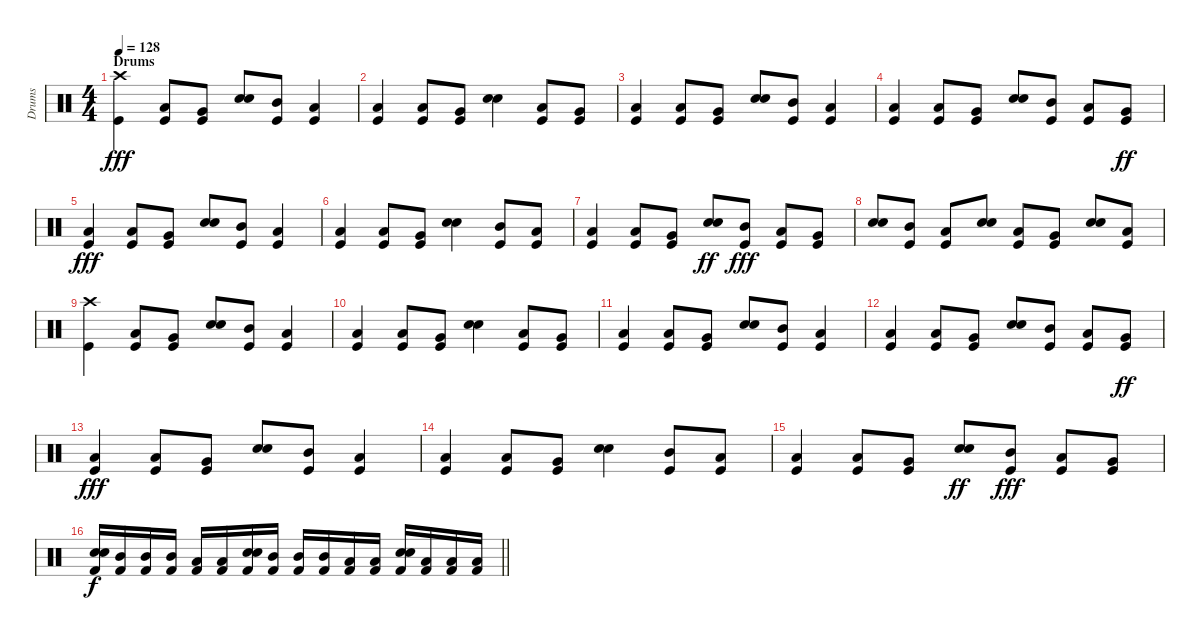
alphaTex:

\track ("Drums" "Drums") {instrument percussion}
\staff {score}
\articulation defaults
\ts (4 4)
\section ("" "Drums")
\tempo 128
\clef neutral
\ks c
("Crash high (hit)" "Kick (hit)").4{dy fff} ("Low Tom (hit)" "Kick (hit)").8 ("Very Low Tom (hit)" "Kick (hit)").8 ("Snare (hit) 2" "Electric Snare (hit)").8 ("Mid Tom (hit)" "Kick (hit)").8 ("Low Tom (hit)" "Kick (hit)").4 |
("Low Tom (hit)" "Kick (hit)").4 ("Low Tom (hit)" "Kick (hit)").8 ("Very Low Tom (hit)" "Kick (hit)").8 ("Snare (hit) 2" "Electric Snare (hit)").4 ("Low Tom (hit)" "Kick (hit)").8 ("Very Low Tom (hit)" "Kick (hit)").8 |
("Low Tom (hit)" "Kick (hit)").4 ("Low Tom (hit)" "Kick (hit)").8 ("Very Low Tom (hit)" "Kick (hit)").8 ("Snare (hit) 2" "Electric Snare (hit)").8 ("Mid Tom (hit)" "Kick (hit)").8 ("Low Tom (hit)" "Kick (hit)").4 |
("Low Tom (hit)" "Kick (hit)").4 ("Low Tom (hit)" "Kick (hit)").8 ("Very Low Tom (hit)" "Kick (hit)").8 ("Snare (hit) 2" "Electric Snare (hit)").8 ("Mid Tom (hit)" "Kick (hit)").8 ("Low Tom (hit)" "Kick (hit)").8 ("Very Low Tom (hit)" "Kick (hit)").8{dy ff} |
("Low Tom (hit)" "Kick (hit)").4{dy fff} ("Low Tom (hit)" "Kick (hit)").8 ("Very Low Tom (hit)" "Kick (hit)").8 ("Snare (hit) 2" "Electric Snare (hit)").8 ("Mid Tom (hit)" "Kick (hit)").8 ("Low Tom (hit)" "Kick (hit)").4 |
("Low Tom (hit)" "Kick (hit)").4 ("Low Tom (hit)" "Kick (hit)").8 ("Very Low Tom (hit)" "Kick (hit)").8 ("Snare (hit) 2" "Electric Snare (hit)").4 ("Mid Tom (hit)" "Kick (hit)").8 ("Low Tom (hit)" "Kick (hit)").8 |
("Low Tom (hit)" "Kick (hit)").4 ("Low Tom (hit)" "Kick (hit)").8 ("Very Low Tom (hit)" "Kick (hit)").8 ("Snare (hit) 2" "Electric Snare (hit)").8{dy ff} ("Mid Tom (hit)" "Kick (hit)").8{dy fff} ("Low Tom (hit)" "Kick (hit)").8 ("Very Low Tom (hit)" "Kick (hit)").8 |
("Snare (hit) 2" "Electric Snare (hit)").8 ("Mid Tom (hit)" "Kick (hit)").8 ("Low Tom (hit)" "Kick (hit)").8 ("Snare (hit) 2" "Electric Snare (hit)").8 ("Low Tom (hit)" "Kick (hit)").8 ("Very Low Tom (hit)" "Kick (hit)").8 ("Snare (hit) 2" "Electric Snare (hit)").8 ("Low Tom (hit)" "Kick (hit)").8 |
("Crash high (hit)" "Kick (hit)").4 ("Low Tom (hit)" "Kick (hit)").8 ("Very Low Tom (hit)" "Kick (hit)").8 ("Snare (hit) 2" "Electric Snare (hit)").8 ("Mid Tom (hit)" "Kick (hit)").8 ("Low Tom (hit)" "Kick (hit)").4 |
("Low Tom (hit)" "Kick (hit)").4 ("Low Tom (hit)" "Kick (hit)").8 ("Very Low Tom (hit)" "Kick (hit)").8 ("Snare (hit) 2" "Electric Snare (hit)").4 ("Low Tom (hit)" "Kick (hit)").8 ("Very Low Tom (hit)" "Kick (hit)").8 |
("Low Tom (hit)" "Kick (hit)").4 ("Low Tom (hit)" "Kick (hit)").8 ("Very Low Tom (hit)" "Kick (hit)").8 ("Snare (hit) 2" "Electric Snare (hit)").8 ("Mid Tom (hit)" "Kick (hit)").8 ("Low Tom (hit)" "Kick (hit)").4 |
("Low Tom (hit)" "Kick (hit)").4 ("Low Tom (hit)" "Kick (hit)").8 ("Very Low Tom (hit)" "Kick (hit)").8 ("Snare (hit) 2" "Electric Snare (hit)").8 ("Mid Tom (hit)" "Kick (hit)").8 ("Low Tom (hit)" "Kick (hit)").8 ("Very Low Tom (hit)" "Kick (hit)").8{dy ff} |
("Low Tom (hit)" "Kick (hit)").4{dy fff} ("Low Tom (hit)" "Kick (hit)").8 ("Very Low Tom (hit)" "Kick (hit)").8 ("Snare (hit) 2" "Electric Snare (hit)").8 ("Mid Tom (hit)" "Kick (hit)").8 ("Low Tom (hit)" "Kick (hit)").4 |
("Low Tom (hit)" "Kick (hit)").4 ("Low Tom (hit)" "Kick (hit)").8 ("Very Low Tom (hit)" "Kick (hit)").8 ("Snare (hit) 2" "Electric Snare (hit)").4 ("Mid Tom (hit)" "Kick (hit)").8 ("Low Tom (hit)" "Kick (hit)").8 |
("Low Tom (hit)" "Kick (hit)").4 ("Low Tom (hit)" "Kick (hit)").8 ("Very Low Tom (hit)" "Kick (hit)").8 ("Snare (hit) 2" "Electric Snare (hit)").8{dy ff} ("Mid Tom (hit)" "Kick (hit)").8{dy fff} ("Low Tom (hit)" "Kick (hit)").8 ("Very Low Tom (hit)" "Kick (hit)").8 |
\barLineRight lightlight
("Snare (hit) 2" "Electric Snare (hit)" "Kick (hit) 2").16{dy f} ("Mid Tom (hit)" "Kick (hit) 2").16{balance 4} ("Mid Tom (hit)" "Kick (hit) 2").16 ("Mid Tom (hit)" "Kick (hit) 2").16 ("Low Tom (hit)" "Kick (hit) 2").16 ("Low Tom (hit)" "Kick (hit) 2").16 ("Snare (hit) 2" "Electric Snare (hit)" "Kick (hit) 2").16{balance 8} ("Mid Tom (hit)" "Kick (hit) 2").16{balance 4} ("Mid Tom (hit)" "Kick (hit) 2").16 ("Mid Tom (hit)" "Kick (hit) 2").16 ("Low Tom (hit)" "Kick (hit) 2").16 ("Low Tom (hit)" "Kick (hit) 2").16 ("Snare (hit) 2" "Electric Snare (hit)" "Kick (hit) 2").16{balance 8} ("Low Tom (hit)" "Kick (hit) 2").16{balance 4} ("Low Tom (hit)" "Kick (hit) 2").16 ("Low Tom (hit)" "Kick (hit) 2").16
